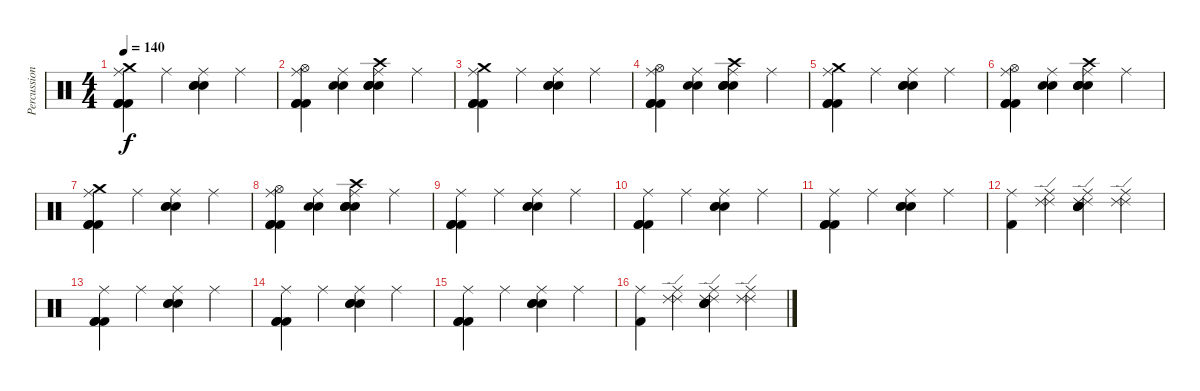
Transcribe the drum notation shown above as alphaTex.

\track ("Percussion" "Percussion") {instrument percussion}
\staff {score}
\articulation defaults
\ts (4 4)
\tempo 140
\clef neutral
\ks c
("Ride (middle)" "Kick (hit) 2" "Kick (hit) 2" "Kick (hit) 2" "Crash medium (hit)").4{dy f} "Ride (middle)".4 ("Ride (middle)" "Electric Snare (hit)" "Electric Snare (hit)" "Electric Snare (hit)").4 "Ride (middle)".4 |
("Ride (middle)" "Kick (hit) 2" "Kick (hit) 2" "Kick (hit) 2" "Hi-Hat (open)").4 ("Ride (middle)" "Electric Snare (hit)" "Electric Snare (hit)").4 ("Ride (middle)" "Electric Snare (hit)" "Electric Snare (hit)" "Electric Snare (hit)" "Electric Snare (hit)" "Crash high (hit)").4 "Ride (middle)".4 |
("Ride (middle)" "Kick (hit) 2" "Kick (hit) 2" "Kick (hit) 2" "Crash medium (hit)").4 "Ride (middle)".4 ("Ride (middle)" "Electric Snare (hit)" "Electric Snare (hit)" "Electric Snare (hit)").4 "Ride (middle)".4 |
("Ride (middle)" "Kick (hit) 2" "Kick (hit) 2" "Kick (hit) 2" "Hi-Hat (open)").4 ("Ride (middle)" "Electric Snare (hit)" "Electric Snare (hit)").4 ("Ride (middle)" "Electric Snare (hit)" "Electric Snare (hit)" "Electric Snare (hit)" "Electric Snare (hit)" "Crash high (hit)").4 "Ride (middle)".4 |
("Ride (middle)" "Kick (hit) 2" "Kick (hit) 2" "Kick (hit) 2" "Crash medium (hit)").4 "Ride (middle)".4 ("Ride (middle)" "Electric Snare (hit)" "Electric Snare (hit)" "Electric Snare (hit)").4 "Ride (middle)".4 |
("Ride (middle)" "Kick (hit) 2" "Kick (hit) 2" "Kick (hit) 2" "Hi-Hat (open)").4 ("Ride (middle)" "Electric Snare (hit)" "Electric Snare (hit)").4 ("Ride (middle)" "Electric Snare (hit)" "Electric Snare (hit)" "Electric Snare (hit)" "Electric Snare (hit)" "Crash high (hit)").4 "Ride (middle)".4 |
("Ride (middle)" "Kick (hit) 2" "Kick (hit) 2" "Kick (hit) 2" "Crash medium (hit)").4 "Ride (middle)".4 ("Ride (middle)" "Electric Snare (hit)" "Electric Snare (hit)" "Electric Snare (hit)").4 "Ride (middle)".4 |
("Ride (middle)" "Kick (hit) 2" "Kick (hit) 2" "Kick (hit) 2" "Hi-Hat (open)").4 ("Ride (middle)" "Electric Snare (hit)" "Electric Snare (hit)").4 ("Ride (middle)" "Electric Snare (hit)" "Electric Snare (hit)" "Electric Snare (hit)" "Electric Snare (hit)" "Crash high (hit)").4 "Ride (middle)".4 |
("Ride (middle)" "Kick (hit) 2" "Kick (hit) 2" "Kick (hit) 2").4 "Ride (middle)".4 ("Ride (middle)" "Electric Snare (hit)" "Electric Snare (hit)" "Electric Snare (hit)").4 "Ride (middle)".4 |
("Ride (middle)" "Kick (hit) 2" "Kick (hit) 2" "Kick (hit) 2").4 "Ride (middle)".4 ("Ride (middle)" "Electric Snare (hit)" "Electric Snare (hit)" "Electric Snare (hit)").4 "Ride (middle)".4 |
("Ride (middle)" "Kick (hit) 2" "Kick (hit) 2" "Kick (hit) 2").4 "Ride (middle)".4 ("Ride (middle)" "Electric Snare (hit)" "Electric Snare (hit)" "Electric Snare (hit)").4 "Ride (middle)".4 |
("Ride (middle)" "Kick (hit) 2").4 ("Ride (middle)" "Ride (edge) 2" "Ride (edge) 2").4 ("Ride (middle)" "Electric Snare (hit)" "Electric Snare (hit)" "Electric Snare (hit)" "Ride (edge) 2" "Ride (edge) 2").4 ("Ride (middle)" "Ride (edge) 2" "Ride (edge) 2").4 |
("Ride (middle)" "Kick (hit) 2" "Kick (hit) 2" "Kick (hit) 2").4 "Ride (middle)".4 ("Ride (middle)" "Electric Snare (hit)" "Electric Snare (hit)" "Electric Snare (hit)").4 "Ride (middle)".4 |
("Ride (middle)" "Kick (hit) 2" "Kick (hit) 2" "Kick (hit) 2").4 "Ride (middle)".4 ("Ride (middle)" "Electric Snare (hit)" "Electric Snare (hit)" "Electric Snare (hit)").4 "Ride (middle)".4 |
("Ride (middle)" "Kick (hit) 2" "Kick (hit) 2" "Kick (hit) 2").4 "Ride (middle)".4 ("Ride (middle)" "Electric Snare (hit)" "Electric Snare (hit)" "Electric Snare (hit)").4 "Ride (middle)".4 |
("Ride (middle)" "Kick (hit) 2").4 ("Ride (middle)" "Ride (edge) 2" "Ride (edge) 2").4 ("Ride (middle)" "Electric Snare (hit)" "Electric Snare (hit)" "Electric Snare (hit)" "Ride (edge) 2" "Ride (edge) 2").4 ("Ride (middle)" "Ride (edge) 2" "Ride (edge) 2").4
